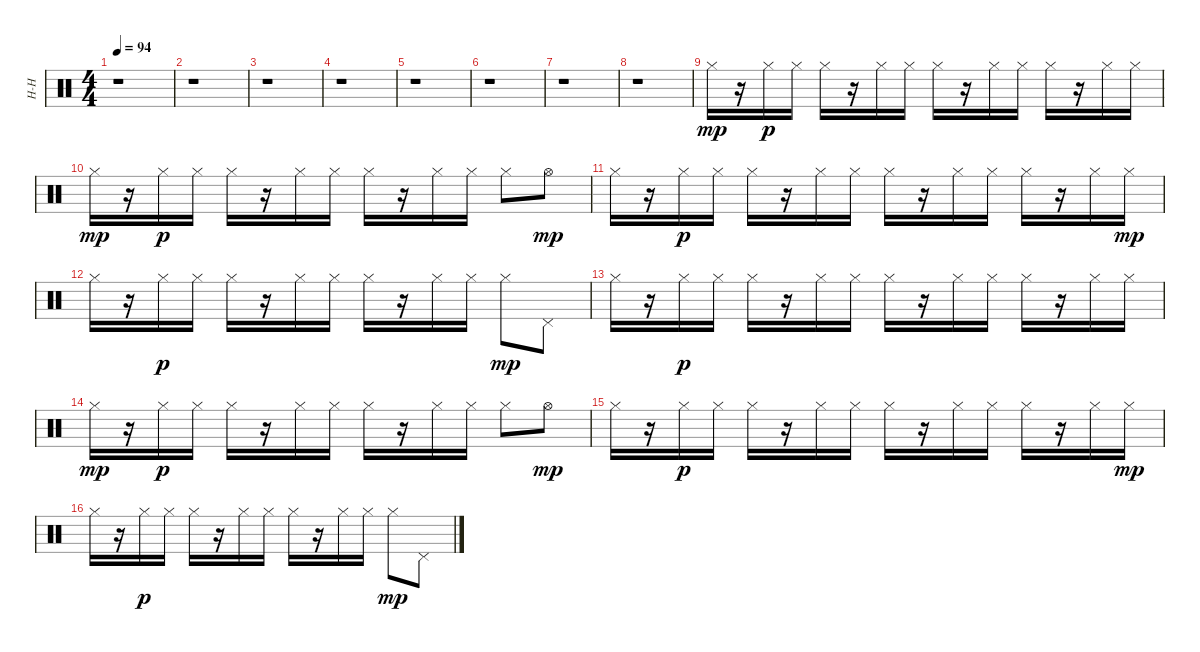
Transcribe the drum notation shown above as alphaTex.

\track ("H-H" "H-H") {instrument percussion}
\staff {score}
\articulation defaults
\ts (4 4)
\tempo 94
\clef neutral
\ks c
r.1{dy mp} |
r.1 |
r.1 |
r.1 |
r.1 |
r.1 |
r.1 |
r.1 |
"Hi-Hat (closed)".16 r.16 "Hi-Hat (closed)".16{dy p} "Hi-Hat (closed)".16 "Hi-Hat (closed)".16 r.16 "Hi-Hat (closed)".16 "Hi-Hat (closed)".16 "Hi-Hat (closed)".16 r.16 "Hi-Hat (closed)".16 "Hi-Hat (closed)".16 "Hi-Hat (closed)".16 r.16 "Hi-Hat (closed)".16 "Hi-Hat (closed)".16 |
"Hi-Hat (closed)".16{dy mp} r.16 "Hi-Hat (closed)".16{dy p} "Hi-Hat (closed)".16 "Hi-Hat (closed)".16 r.16 "Hi-Hat (closed)".16 "Hi-Hat (closed)".16 "Hi-Hat (closed)".16 r.16 "Hi-Hat (closed)".16 "Hi-Hat (closed)".16 "Hi-Hat (closed)".8 "Hi-Hat (open)".8{dy mp} |
"Hi-Hat (closed)".16 r.16 "Hi-Hat (closed)".16{dy p} "Hi-Hat (closed)".16 "Hi-Hat (closed)".16 r.16 "Hi-Hat (closed)".16 "Hi-Hat (closed)".16 "Hi-Hat (closed)".16 r.16 "Hi-Hat (closed)".16 "Hi-Hat (closed)".16 "Hi-Hat (closed)".16 r.16 "Hi-Hat (closed)".16 "Hi-Hat (closed)".16{dy mp} |
"Hi-Hat (closed)".16 r.16 "Hi-Hat (closed)".16{dy p} "Hi-Hat (closed)".16 "Hi-Hat (closed)".16 r.16 "Hi-Hat (closed)".16 "Hi-Hat (closed)".16 "Hi-Hat (closed)".16 r.16 "Hi-Hat (closed)".16 "Hi-Hat (closed)".16 "Hi-Hat (closed)".8{dy mp} "Pedal Hi-Hat (hit)".8 |
"Hi-Hat (closed)".16 r.16 "Hi-Hat (closed)".16{dy p} "Hi-Hat (closed)".16 "Hi-Hat (closed)".16 r.16 "Hi-Hat (closed)".16 "Hi-Hat (closed)".16 "Hi-Hat (closed)".16 r.16 "Hi-Hat (closed)".16 "Hi-Hat (closed)".16 "Hi-Hat (closed)".16 r.16 "Hi-Hat (closed)".16 "Hi-Hat (closed)".16 |
"Hi-Hat (closed)".16{dy mp} r.16 "Hi-Hat (closed)".16{dy p} "Hi-Hat (closed)".16 "Hi-Hat (closed)".16 r.16 "Hi-Hat (closed)".16 "Hi-Hat (closed)".16 "Hi-Hat (closed)".16 r.16 "Hi-Hat (closed)".16 "Hi-Hat (closed)".16 "Hi-Hat (closed)".8 "Hi-Hat (open)".8{dy mp} |
"Hi-Hat (closed)".16 r.16 "Hi-Hat (closed)".16{dy p} "Hi-Hat (closed)".16 "Hi-Hat (closed)".16 r.16 "Hi-Hat (closed)".16 "Hi-Hat (closed)".16 "Hi-Hat (closed)".16 r.16 "Hi-Hat (closed)".16 "Hi-Hat (closed)".16 "Hi-Hat (closed)".16 r.16 "Hi-Hat (closed)".16 "Hi-Hat (closed)".16{dy mp} |
"Hi-Hat (closed)".16 r.16 "Hi-Hat (closed)".16{dy p} "Hi-Hat (closed)".16 "Hi-Hat (closed)".16 r.16 "Hi-Hat (closed)".16 "Hi-Hat (closed)".16 "Hi-Hat (closed)".16 r.16 "Hi-Hat (closed)".16 "Hi-Hat (closed)".16 "Hi-Hat (closed)".8{dy mp} "Pedal Hi-Hat (hit)".8
